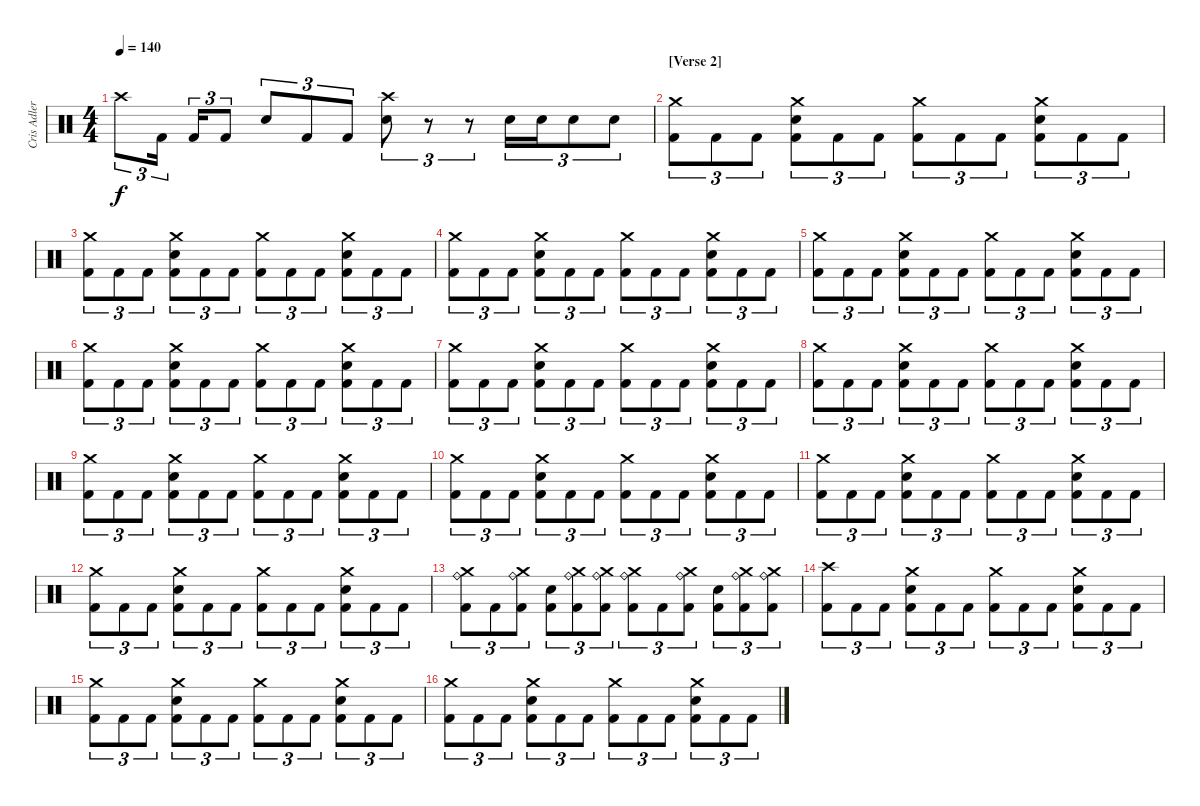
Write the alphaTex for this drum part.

\track ("Cris Adler" "Cris Adler") {instrument percussion}
\staff {score}
\articulation defaults
\ts (4 4)
\tempo 140
\clef neutral
\ks c "Crash high (hit)".8{tu (3 2) dy f} "Kick (hit) 2".16{tu (3 2)} "Kick (hit) 2".16{tu (3 2)} "Kick (hit) 2".8{tu (3 2)} "Electric Snare (hit)".8{tu (3 2)} "Kick (hit) 2".8{tu (3 2)} "Kick (hit) 2".8{tu (3 2)}
("Crash high (hit)" "Electric Snare (hit)").8{tu (3 2)} r.8{tu (3 2)} r.8{tu (3 2)} "Electric Snare (hit)".16{tu (3 2)} "Electric Snare (hit)".16{tu (3 2)} "Electric Snare (hit)".8{tu (3 2)} "Electric Snare (hit)".8{tu (3 2)} |
\section ("" "[Verse 2]")
("Crash medium (hit)" "Kick (hit) 2").8{tu (3 2)} "Kick (hit) 2".8{tu (3 2)} "Kick (hit) 2".8{tu (3 2)} ("Crash medium (hit)" "Electric Snare (hit)" "Kick (hit) 2").8{tu (3 2)} "Kick (hit) 2".8{tu (3 2)} "Kick (hit) 2".8{tu (3 2)} ("Crash medium (hit)" "Kick (hit) 2").8{tu (3 2)} "Kick (hit) 2".8{tu (3 2)} "Kick (hit) 2".8{tu (3 2)} ("Crash medium (hit)" "Electric Snare (hit)" "Kick (hit) 2").8{tu (3 2)} "Kick (hit) 2".8{tu (3 2)} "Kick (hit) 2".8{tu (3 2)} |
("Crash medium (hit)" "Kick (hit) 2").8{tu (3 2)} "Kick (hit) 2".8{tu (3 2)} "Kick (hit) 2".8{tu (3 2)} ("Crash medium (hit)" "Electric Snare (hit)" "Kick (hit) 2").8{tu (3 2)} "Kick (hit) 2".8{tu (3 2)} "Kick (hit) 2".8{tu (3 2)} ("Crash medium (hit)" "Kick (hit) 2").8{tu (3 2)} "Kick (hit) 2".8{tu (3 2)} "Kick (hit) 2".8{tu (3 2)} ("Crash medium (hit)" "Electric Snare (hit)" "Kick (hit) 2").8{tu (3 2)} "Kick (hit) 2".8{tu (3 2)} "Kick (hit) 2".8{tu (3 2)} |
("Crash medium (hit)" "Kick (hit) 2").8{tu (3 2)} "Kick (hit) 2".8{tu (3 2)} "Kick (hit) 2".8{tu (3 2)} ("Crash medium (hit)" "Electric Snare (hit)" "Kick (hit) 2").8{tu (3 2)} "Kick (hit) 2".8{tu (3 2)} "Kick (hit) 2".8{tu (3 2)} ("Crash medium (hit)" "Kick (hit) 2").8{tu (3 2)} "Kick (hit) 2".8{tu (3 2)} "Kick (hit) 2".8{tu (3 2)} ("Crash medium (hit)" "Electric Snare (hit)" "Kick (hit) 2").8{tu (3 2)} "Kick (hit) 2".8{tu (3 2)} "Kick (hit) 2".8{tu (3 2)} |
("Crash medium (hit)" "Kick (hit) 2").8{tu (3 2)} "Kick (hit) 2".8{tu (3 2)} "Kick (hit) 2".8{tu (3 2)} ("Crash medium (hit)" "Electric Snare (hit)" "Kick (hit) 2").8{tu (3 2)} "Kick (hit) 2".8{tu (3 2)} "Kick (hit) 2".8{tu (3 2)} ("Crash medium (hit)" "Kick (hit) 2").8{tu (3 2)} "Kick (hit) 2".8{tu (3 2)} "Kick (hit) 2".8{tu (3 2)} ("Crash medium (hit)" "Electric Snare (hit)" "Kick (hit) 2").8{tu (3 2)} "Kick (hit) 2".8{tu (3 2)} "Kick (hit) 2".8{tu (3 2)} |
("Crash medium (hit)" "Kick (hit) 2").8{tu (3 2)} "Kick (hit) 2".8{tu (3 2)} "Kick (hit) 2".8{tu (3 2)} ("Crash medium (hit)" "Electric Snare (hit)" "Kick (hit) 2").8{tu (3 2)} "Kick (hit) 2".8{tu (3 2)} "Kick (hit) 2".8{tu (3 2)} ("Crash medium (hit)" "Kick (hit) 2").8{tu (3 2)} "Kick (hit) 2".8{tu (3 2)} "Kick (hit) 2".8{tu (3 2)} ("Crash medium (hit)" "Electric Snare (hit)" "Kick (hit) 2").8{tu (3 2)} "Kick (hit) 2".8{tu (3 2)} "Kick (hit) 2".8{tu (3 2)} |
("Crash medium (hit)" "Kick (hit) 2").8{tu (3 2)} "Kick (hit) 2".8{tu (3 2)} "Kick (hit) 2".8{tu (3 2)} ("Crash medium (hit)" "Electric Snare (hit)" "Kick (hit) 2").8{tu (3 2)} "Kick (hit) 2".8{tu (3 2)} "Kick (hit) 2".8{tu (3 2)} ("Crash medium (hit)" "Kick (hit) 2").8{tu (3 2)} "Kick (hit) 2".8{tu (3 2)} "Kick (hit) 2".8{tu (3 2)} ("Crash medium (hit)" "Electric Snare (hit)" "Kick (hit) 2").8{tu (3 2)} "Kick (hit) 2".8{tu (3 2)} "Kick (hit) 2".8{tu (3 2)} |
("Crash medium (hit)" "Kick (hit) 2").8{tu (3 2)} "Kick (hit) 2".8{tu (3 2)} "Kick (hit) 2".8{tu (3 2)} ("Crash medium (hit)" "Electric Snare (hit)" "Kick (hit) 2").8{tu (3 2)} "Kick (hit) 2".8{tu (3 2)} "Kick (hit) 2".8{tu (3 2)} ("Crash medium (hit)" "Kick (hit) 2").8{tu (3 2)} "Kick (hit) 2".8{tu (3 2)} "Kick (hit) 2".8{tu (3 2)} ("Crash medium (hit)" "Electric Snare (hit)" "Kick (hit) 2").8{tu (3 2)} "Kick (hit) 2".8{tu (3 2)} "Kick (hit) 2".8{tu (3 2)} |
("Crash medium (hit)" "Kick (hit) 2").8{tu (3 2)} "Kick (hit) 2".8{tu (3 2)} "Kick (hit) 2".8{tu (3 2)} ("Crash medium (hit)" "Electric Snare (hit)" "Kick (hit) 2").8{tu (3 2)} "Kick (hit) 2".8{tu (3 2)} "Kick (hit) 2".8{tu (3 2)} ("Crash medium (hit)" "Kick (hit) 2").8{tu (3 2)} "Kick (hit) 2".8{tu (3 2)} "Kick (hit) 2".8{tu (3 2)} ("Crash medium (hit)" "Electric Snare (hit)" "Kick (hit) 2").8{tu (3 2)} "Kick (hit) 2".8{tu (3 2)} "Kick (hit) 2".8{tu (3 2)} |
("Crash medium (hit)" "Kick (hit) 2").8{tu (3 2)} "Kick (hit) 2".8{tu (3 2)} "Kick (hit) 2".8{tu (3 2)} ("Crash medium (hit)" "Electric Snare (hit)" "Kick (hit) 2").8{tu (3 2)} "Kick (hit) 2".8{tu (3 2)} "Kick (hit) 2".8{tu (3 2)} ("Crash medium (hit)" "Kick (hit) 2").8{tu (3 2)} "Kick (hit) 2".8{tu (3 2)} "Kick (hit) 2".8{tu (3 2)} ("Crash medium (hit)" "Electric Snare (hit)" "Kick (hit) 2").8{tu (3 2)} "Kick (hit) 2".8{tu (3 2)} "Kick (hit) 2".8{tu (3 2)} |
("Crash medium (hit)" "Kick (hit) 2").8{tu (3 2)} "Kick (hit) 2".8{tu (3 2)} "Kick (hit) 2".8{tu (3 2)} ("Crash medium (hit)" "Electric Snare (hit)" "Kick (hit) 2").8{tu (3 2)} "Kick (hit) 2".8{tu (3 2)} "Kick (hit) 2".8{tu (3 2)} ("Crash medium (hit)" "Kick (hit) 2").8{tu (3 2)} "Kick (hit) 2".8{tu (3 2)} "Kick (hit) 2".8{tu (3 2)} ("Crash medium (hit)" "Electric Snare (hit)" "Kick (hit) 2").8{tu (3 2)} "Kick (hit) 2".8{tu (3 2)} "Kick (hit) 2".8{tu (3 2)} |
("Crash medium (hit)" "Kick (hit) 2").8{tu (3 2)} "Kick (hit) 2".8{tu (3 2)} "Kick (hit) 2".8{tu (3 2)} ("Crash medium (hit)" "Electric Snare (hit)" "Kick (hit) 2").8{tu (3 2)} "Kick (hit) 2".8{tu (3 2)} "Kick (hit) 2".8{tu (3 2)} ("Crash medium (hit)" "Kick (hit) 2").8{tu (3 2)} "Kick (hit) 2".8{tu (3 2)} "Kick (hit) 2".8{tu (3 2)} ("Crash medium (hit)" "Electric Snare (hit)" "Kick (hit) 2").8{tu (3 2)} "Kick (hit) 2".8{tu (3 2)} "Kick (hit) 2".8{tu (3 2)} |
("Crash medium (hit)" "Ride (bell)" "Kick (hit) 2").8{tu (3 2)} "Kick (hit) 2".8{tu (3 2)} ("Crash medium (hit)" "Ride (bell)" "Kick (hit) 2").8{tu (3 2)} ("Electric Snare (hit)" "Kick (hit) 2").8{tu (3 2)} ("Crash medium (hit)" "Ride (bell)" "Kick (hit) 2").8{tu (3 2)} ("Crash medium (hit)" "Ride (bell)" "Kick (hit) 2").8{tu (3 2)} ("Crash medium (hit)" "Ride (bell)" "Kick (hit) 2").8{tu (3 2)} "Kick (hit) 2".8{tu (3 2)} ("Crash medium (hit)" "Ride (bell)" "Kick (hit) 2").8{tu (3 2)} ("Electric Snare (hit)" "Kick (hit) 2").8{tu (3 2)} ("Crash medium (hit)" "Ride (bell)" "Kick (hit) 2").8{tu (3 2)} ("Crash medium (hit)" "Ride (bell)" "Kick (hit) 2").8{tu (3 2)} |
("Crash high (hit)" "Kick (hit) 2").8{tu (3 2)} "Kick (hit) 2".8{tu (3 2)} "Kick (hit) 2".8{tu (3 2)} ("Crash medium (hit)" "Electric Snare (hit)" "Kick (hit) 2").8{tu (3 2)} "Kick (hit) 2".8{tu (3 2)} "Kick (hit) 2".8{tu (3 2)} ("Crash medium (hit)" "Kick (hit) 2").8{tu (3 2)} "Kick (hit) 2".8{tu (3 2)} "Kick (hit) 2".8{tu (3 2)} ("Crash medium (hit)" "Electric Snare (hit)" "Kick (hit) 2").8{tu (3 2)} "Kick (hit) 2".8{tu (3 2)} "Kick (hit) 2".8{tu (3 2)} |
("Crash medium (hit)" "Kick (hit) 2").8{tu (3 2)} "Kick (hit) 2".8{tu (3 2)} "Kick (hit) 2".8{tu (3 2)} ("Crash medium (hit)" "Electric Snare (hit)" "Kick (hit) 2").8{tu (3 2)} "Kick (hit) 2".8{tu (3 2)} "Kick (hit) 2".8{tu (3 2)} ("Crash medium (hit)" "Kick (hit) 2").8{tu (3 2)} "Kick (hit) 2".8{tu (3 2)} "Kick (hit) 2".8{tu (3 2)} ("Crash medium (hit)" "Electric Snare (hit)" "Kick (hit) 2").8{tu (3 2)} "Kick (hit) 2".8{tu (3 2)} "Kick (hit) 2".8{tu (3 2)} |
("Crash medium (hit)" "Kick (hit) 2").8{tu (3 2)} "Kick (hit) 2".8{tu (3 2)} "Kick (hit) 2".8{tu (3 2)} ("Crash medium (hit)" "Electric Snare (hit)" "Kick (hit) 2").8{tu (3 2)} "Kick (hit) 2".8{tu (3 2)} "Kick (hit) 2".8{tu (3 2)} ("Crash medium (hit)" "Kick (hit) 2").8{tu (3 2)} "Kick (hit) 2".8{tu (3 2)} "Kick (hit) 2".8{tu (3 2)} ("Crash medium (hit)" "Electric Snare (hit)" "Kick (hit) 2").8{tu (3 2)} "Kick (hit) 2".8{tu (3 2)} "Kick (hit) 2".8{tu (3 2)}
